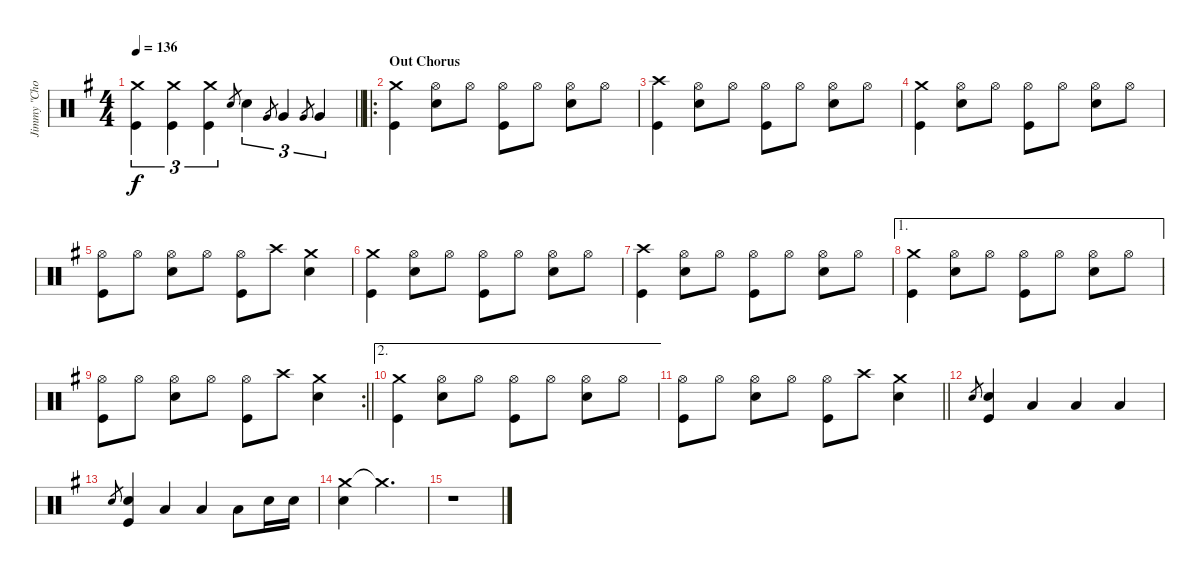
\track ("Jimmy \"Chocolate\" Chalfant" "Jimmy \"Cho") {instrument percussion}
\staff {score}
\articulation defaults
\ts (4 4)
\tempo 136
\clef neutral
\barLineRight lightlight
\ks g
("Crash medium (hit)" "Kick (hit)").4{tu (3 2) dy f} ("Crash medium (hit)" "Kick (hit)").4{tu (3 2)} ("Crash medium (hit)" "Kick (hit)").4{tu (3 2)} "Snare (hit) 2".8{gr} "Snare (hit) 2".4{tu (3 2)} "Very Low Tom (hit)".8{gr} "Very Low Tom (hit)".4{tu (3 2)} "Very Low Tom (hit)".8{gr} "Very Low Tom (hit)".4{tu (3 2)} |
\ro
\section ("" "Out Chorus")
("Crash medium (hit)" "Kick (hit)").4 ("Hi-Hat (open)" "Snare (hit) 2").8 "Hi-Hat (open)".8 ("Hi-Hat (open)" "Kick (hit)").8 "Hi-Hat (open)".8 ("Hi-Hat (open)" "Snare (hit) 2").8 "Hi-Hat (open)".8 |
("Crash high (hit)" "Kick (hit)").4 ("Hi-Hat (open)" "Snare (hit) 2").8 "Hi-Hat (open)".8 ("Hi-Hat (open)" "Kick (hit)").8 "Hi-Hat (open)".8 ("Hi-Hat (open)" "Snare (hit) 2").8 "Hi-Hat (open)".8 |
("Crash medium (hit)" "Kick (hit)").4 ("Hi-Hat (open)" "Snare (hit) 2").8 "Hi-Hat (open)".8 ("Hi-Hat (open)" "Kick (hit)").8 "Hi-Hat (open)".8 ("Hi-Hat (open)" "Snare (hit) 2").8 "Hi-Hat (open)".8 |
("Hi-Hat (open)" "Kick (hit)").8 "Hi-Hat (open)".8 ("Hi-Hat (open)" "Snare (hit) 2").8 "Hi-Hat (open)".8 ("Hi-Hat (open)" "Kick (hit)").8 "Crash high (hit)".8 ("Crash medium (hit)" "Snare (hit) 2").4 |
("Crash medium (hit)" "Kick (hit)").4 ("Hi-Hat (open)" "Snare (hit) 2").8 "Hi-Hat (open)".8 ("Hi-Hat (open)" "Kick (hit)").8 "Hi-Hat (open)".8 ("Hi-Hat (open)" "Snare (hit) 2").8 "Hi-Hat (open)".8 |
("Crash high (hit)" "Kick (hit)").4 ("Hi-Hat (open)" "Snare (hit) 2").8 "Hi-Hat (open)".8 ("Hi-Hat (open)" "Kick (hit)").8 "Hi-Hat (open)".8 ("Hi-Hat (open)" "Snare (hit) 2").8 "Hi-Hat (open)".8 |
\ae 1
("Crash medium (hit)" "Kick (hit)").4 ("Hi-Hat (open)" "Snare (hit) 2").8 "Hi-Hat (open)".8 ("Hi-Hat (open)" "Kick (hit)").8 "Hi-Hat (open)".8 ("Hi-Hat (open)" "Snare (hit) 2").8 "Hi-Hat (open)".8 |
\rc 2
\barLineRight lightlight
("Hi-Hat (open)" "Kick (hit)").8 "Hi-Hat (open)".8 ("Hi-Hat (open)" "Snare (hit) 2").8 "Hi-Hat (open)".8 ("Hi-Hat (open)" "Kick (hit)").8 "Crash high (hit)".8 ("Crash medium (hit)" "Snare (hit) 2").4 |
\ae 2
("Crash medium (hit)" "Kick (hit)").4 ("Hi-Hat (open)" "Snare (hit) 2").8 "Hi-Hat (open)".8 ("Hi-Hat (open)" "Kick (hit)").8 "Hi-Hat (open)".8 ("Hi-Hat (open)" "Snare (hit) 2").8 "Hi-Hat (open)".8 |
\barLineRight lightlight
("Hi-Hat (open)" "Kick (hit)").8 "Hi-Hat (open)".8 ("Hi-Hat (open)" "Snare (hit) 2").8 "Hi-Hat (open)".8 ("Hi-Hat (open)" "Kick (hit)").8 "Crash high (hit)".8 ("Crash medium (hit)" "Snare (hit) 2").4 |
"Snare (hit) 2".8{gr} ("Snare (hit) 2" "Kick (hit)").4 "Low Floor Tom (hit)".4 "Low Floor Tom (hit)".4 "Low Floor Tom (hit)".4 |
"Snare (hit) 2".8{gr} ("Snare (hit) 2" "Kick (hit)").4 "Low Floor Tom (hit)".4 "Low Floor Tom (hit)".4 "Low Floor Tom (hit)".8 "Snare (hit) 2".16 "Snare (hit) 2".16 |
("Crash medium (hit)" "Snare (hit) 2").4 "Crash medium (hit)"{t}.2{d} |
r.1
